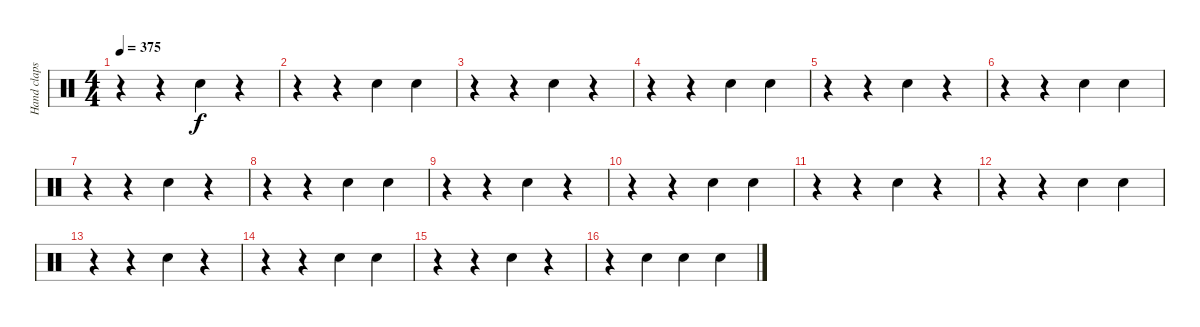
\track ("Hand claps" "Hand claps") {instrument percussion}
\staff {score}
\articulation defaults
\ts (4 4)
\tempo 375
\clef neutral
\ks c
r.4{dy f} r.4 "Hand Clap (hit)".4 r.4 |
r.4 r.4 "Hand Clap (hit)".4 "Hand Clap (hit)".4 |
r.4 r.4 "Hand Clap (hit)".4 r.4 |
r.4 r.4 "Hand Clap (hit)".4 "Hand Clap (hit)".4 |
r.4 r.4 "Hand Clap (hit)".4 r.4 |
r.4 r.4 "Hand Clap (hit)".4 "Hand Clap (hit)".4 |
r.4 r.4 "Hand Clap (hit)".4 r.4 |
r.4 r.4 "Hand Clap (hit)".4 "Hand Clap (hit)".4 |
r.4 r.4 "Hand Clap (hit)".4 r.4 |
r.4 r.4 "Hand Clap (hit)".4 "Hand Clap (hit)".4 |
r.4 r.4 "Hand Clap (hit)".4 r.4 |
r.4 r.4 "Hand Clap (hit)".4 "Hand Clap (hit)".4 |
r.4 r.4 "Hand Clap (hit)".4 r.4 |
r.4 r.4 "Hand Clap (hit)".4 "Hand Clap (hit)".4 |
r.4 r.4 "Hand Clap (hit)".4 r.4 |
r.4 "Hand Clap (hit)".4 "Hand Clap (hit)".4 "Hand Clap (hit)".4
